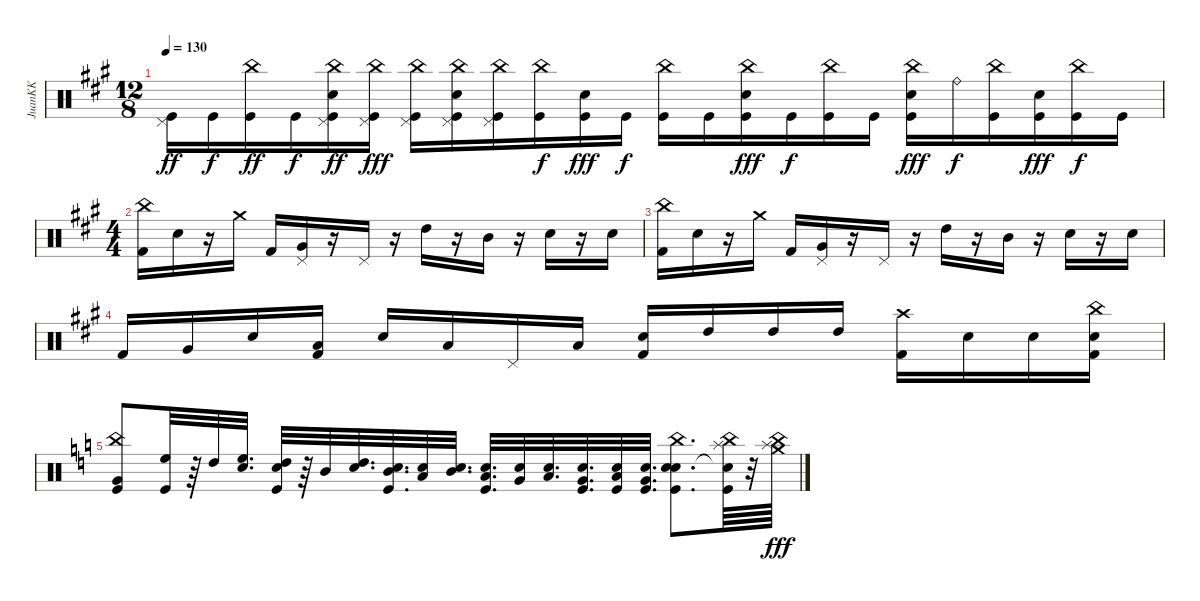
\track ("JuanKK" "JuanKK") {instrument percussion}
\staff {score}
\articulation defaults
\ts (12 8)
\tempo 130
\clef neutral
\ks a
("Kick (hit)" "Pedal Hi-Hat (hit)").16{dy ff} "Kick (hit)".16{dy f} ("Kick (hit)" "China (hit)").16{dy ff} "Kick (hit)".16{dy f} ("Kick (hit)" "Electric Snare (hit)" "Pedal Hi-Hat (hit)" "China (hit)").16{dy ff} ("Kick (hit)" "Pedal Hi-Hat (hit)" "China (hit)").16{dy fff} ("Kick (hit)" "Pedal Hi-Hat (hit)" "China (hit)").16 ("Kick (hit)" "Electric Snare (hit)" "Pedal Hi-Hat (hit)" "China (hit)").16 ("Kick (hit)" "Pedal Hi-Hat (hit)" "China (hit)").16 ("Kick (hit)" "China (hit)").16{dy f} ("Kick (hit)" "Electric Snare (hit)").16{dy fff} "Kick (hit)".16{dy f} ("Kick (hit)" "China (hit)").16 "Kick (hit)".16 ("Kick (hit)" "Electric Snare (hit)" "China (hit)").16{dy fff} "Kick (hit)".16{dy f} ("Kick (hit)" "China (hit)").16 "Kick (hit)".16 ("Kick (hit)" "Electric Snare (hit)" "China (hit)").16{dy fff} "Ride (bell)".16{dy f} ("Kick (hit)" "China (hit)").16 ("Kick (hit)" "Electric Snare (hit)").16{dy fff} ("Kick (hit)" "China (hit)").16{dy f} "Kick (hit)".16 |
\ts (4 4)
("China (hit)" "Kick (hit) 2").16 "Electric Snare (hit)".16 r.16 "Crash medium (hit)".16 "Kick (hit) 2".16 ("Very Low Tom (hit)" "Pedal Hi-Hat (hit)").16 r.16 "Pedal Hi-Hat (hit)".16 r.16 "High Tom (hit)".16 r.16 "Mid Tom (hit)".16 r.16 "Snare (hit) 2".16 r.16 "Snare (hit) 2".16 |
("China (hit)" "Kick (hit) 2").16 "Electric Snare (hit)".16 r.16 "Crash medium (hit)".16 "Kick (hit) 2".16 ("Very Low Tom (hit)" "Pedal Hi-Hat (hit)").16 r.16 "Pedal Hi-Hat (hit)".16 r.16 "High Tom (hit)".16 r.16 "Mid Tom (hit)".16 r.16 "Snare (hit) 2".16 r.16 "Snare (hit) 2".16 |
"Kick (hit) 2".16 "Very Low Tom (hit)".16 "Electric Snare (hit)".16 ("Kick (hit) 2" "Low Tom (hit)").16 "Electric Snare (hit)".16 "Low Tom (hit)".16 "Pedal Hi-Hat (hit)".16 "Low Tom (hit)".16 ("Electric Snare (hit)" "Kick (hit) 2").16 "High Tom (hit)".16 "High Tom (hit)".16 "High Tom (hit)".16 ("Kick (hit) 2" "Crash high (hit)").16 "Electric Snare (hit)".16 "Electric Snare (hit)".16 ("Kick (hit) 2" "Electric Snare (hit)" "China (hit)").16 |
\ks c
("Kick (hit)" "Very Low Tom (hit)" "China (hit)").8 ("Kick (hit)" "High Floor Tom (hit)").32 r.64 "High Tom (hit)".32 ("Snare (hit)" "High Floor Tom (hit)").32{d} ("Snare (hit)" "Kick (hit)" "High Tom (hit)").32 r.64 "Mid Tom (hit)".32 ("Snare (hit)" "High Tom (hit)").32{d} ("Snare (hit)" "Kick (hit)" "Mid Tom (hit)").32{d} ("Snare (hit)" "Low Tom (hit)").32 ("Snare (hit)" "Mid Tom (hit)").32{d} ("Snare (hit)" "Kick (hit)" "Low Tom (hit)").32{d} ("Snare (hit)" "Very Low Tom (hit)").32 ("Snare (hit)" "Low Tom (hit)").32{d} ("Snare (hit)" "Kick (hit)" "Very Low Tom (hit)").32{d} ("Snare (hit)" "Kick (hit)" "Low Floor Tom (hit)").32 ("Snare (hit)" "Kick (hit)" "Very Low Tom (hit)").32{d} ("Snare (hit)" "Kick (hit)" "Snare (hit) 2" "China (hit)").8{d} ("Snare (hit)"{t} "Kick (hit)" "China (hit)" "Splash (hit)").64 r.32 ("Crash medium (hit)" "Splash (hit)" "China (hit)").64{dy fff}
